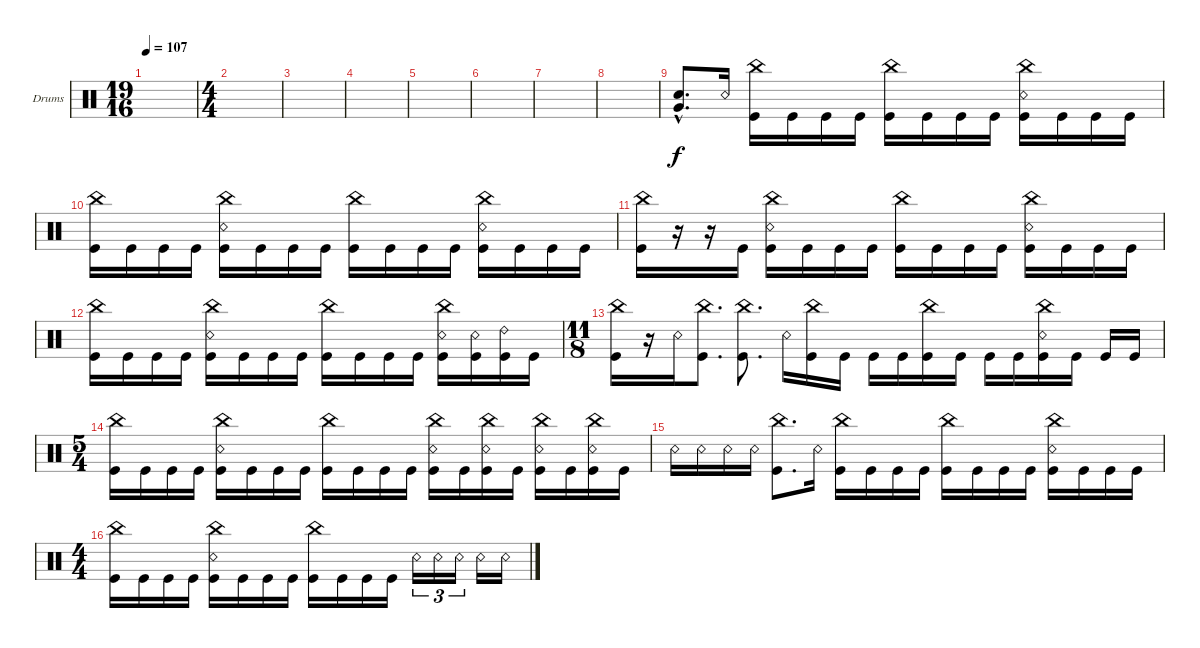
\defaultSystemsLayout 4
\bracketExtendMode groupsimilarinstruments
\firstSystemTrackNameOrientation horizontal
\otherSystemsTrackNameOrientation horizontal
\track ("Drumkit" "Drums") {instrument percussion}
\staff {score}
\articulation defaults
\ts (19 16)
\tempo 107
\clef neutral
\ks c
|
\ts (4 4)
|
|
|
|
|
|
|
\scale
0.472222 ("Snare (hit) 2" "Very Low Tom (hit)"{hac}).8{d} "Snare (rim shot)".16 ("Kick (hit)" "China (hit)").16 "Kick (hit)".16 "Kick (hit)".16 "Kick (hit)".16 ("Kick (hit)" "China (hit)").16 "Kick (hit)".16 "Kick (hit)".16 "Kick (hit)".16 ("Kick (hit)" "China (hit)" "Snare (rim shot)").16 "Kick (hit)".16 "Kick (hit)".16 "Kick (hit)".16 |
\scale
0.263889 ("Kick (hit)" "China (hit)").16 "Kick (hit)".16 "Kick (hit)".16 "Kick (hit)".16 ("Kick (hit)" "China (hit)" "Snare (rim shot)").16 "Kick (hit)".16 "Kick (hit)".16 "Kick (hit)".16 ("Kick (hit)" "China (hit)").16 "Kick (hit)".16 "Kick (hit)".16 "Kick (hit)".16 ("Kick (hit)" "China (hit)" "Snare (rim shot)").16 "Kick (hit)".16 "Kick (hit)".16 "Kick (hit)".16 |
\scale
0.263889 ("Kick (hit)" "China (hit)").16 r.16 r.16 "Kick (hit)".16 ("Kick (hit)" "China (hit)" "Snare (rim shot)").16 "Kick (hit)".16 "Kick (hit)".16 "Kick (hit)".16 ("Kick (hit)" "China (hit)").16 "Kick (hit)".16 "Kick (hit)".16 "Kick (hit)".16 ("Kick (hit)" "China (hit)" "Snare (rim shot)").16 "Kick (hit)".16 "Kick (hit)".16 "Kick (hit)".16 |
\scale
0.333333 ("Kick (hit)" "China (hit)").16 "Kick (hit)".16 "Kick (hit)".16 "Kick (hit)".16 ("Kick (hit)" "China (hit)" "Snare (rim shot)").16 "Kick (hit)".16 "Kick (hit)".16 "Kick (hit)".16 ("Kick (hit)" "China (hit)").16 "Kick (hit)".16 "Kick (hit)".16 "Kick (hit)".16 ("Kick (hit)" "China (hit)" "Snare (rim shot)").16 ("Kick (hit)" "Snare (rim shot)").16 ("Kick (hit)" "Ride (bell) 2").16 "Kick (hit)".16 |
\ts (11 8)
\scale
0.333333 ("Kick (hit)" "China (hit)").16 r.16 "Snare (rim shot)".16 ("Kick (hit)" "China (hit)").8{d} ("Kick (hit)" "China (hit)").8{d} "Snare (rim shot)".16 ("Kick (hit)" "China (hit)").16 "Kick (hit)".16 "Kick (hit)".16 "Kick (hit)".16 ("Kick (hit)" "China (hit)").16 "Kick (hit)".16 "Kick (hit)".16 "Kick (hit)".16 ("Kick (hit)" "China (hit)" "Snare (rim shot)").16 "Kick (hit)".16 "Kick (hit)".16 "Kick (hit)".16 |
\ts (5 4)
\scale
0.333333 ("Kick (hit)" "China (hit)").16 "Kick (hit)".16 "Kick (hit)".16 "Kick (hit)".16 ("Kick (hit)" "China (hit)" "Snare (rim shot)").16 "Kick (hit)".16 "Kick (hit)".16 "Kick (hit)".16 ("Kick (hit)" "China (hit)").16 "Kick (hit)".16 "Kick (hit)".16 "Kick (hit)".16 ("Kick (hit)" "China (hit)" "Snare (rim shot)").16 "Kick (hit)".16 ("Kick (hit)" "China (hit)" "Snare (rim shot)").16 "Kick (hit)".16 ("Kick (hit)" "China (hit)" "Snare (rim shot)").16 "Kick (hit)".16 ("Kick (hit)" "China (hit)" "Snare (rim shot)").16 "Kick (hit)".16 |
\scale
0.333333 "Snare (rim shot)".16 "Snare (rim shot)".16 "Snare (rim shot)".16 "Snare (rim shot)".16 ("Kick (hit)" "China (hit)").8{d} "Snare (rim shot)".16 ("Kick (hit)" "China (hit)").16 "Kick (hit)".16 "Kick (hit)".16 "Kick (hit)".16 ("Kick (hit)" "China (hit)").16 "Kick (hit)".16 "Kick (hit)".16 "Kick (hit)".16 ("Kick (hit)" "China (hit)" "Snare (rim shot)").16 "Kick (hit)".16 "Kick (hit)".16 "Kick (hit)".16 |
\ts (4 4)
\scale
0.333333 ("Kick (hit)" "China (hit)").16 "Kick (hit)".16 "Kick (hit)".16 "Kick (hit)".16 ("Kick (hit)" "China (hit)" "Snare (rim shot)").16 "Kick (hit)".16 "Kick (hit)".16 "Kick (hit)".16 ("Kick (hit)" "China (hit)").16 "Kick (hit)".16 "Kick (hit)".16 "Kick (hit)".16 "Snare (rim shot)".16{tu (3 2)} "Snare (rim shot)".16{tu (3 2)} "Snare (rim shot)".16{tu (3 2)} "Snare (rim shot)".16 "Snare (rim shot)".16
